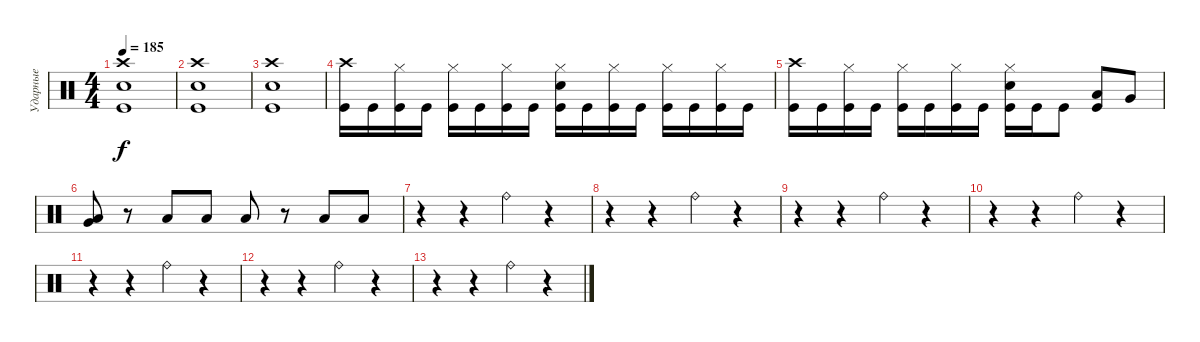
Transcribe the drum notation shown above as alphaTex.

\track ("Ударные" "Ударные") {instrument percussion}
\staff {score}
\articulation defaults
\ts (4 4)
\tempo 185
\clef neutral
\ks c
("Crash high (hit)" "Electric Snare (hit)" "Kick (hit)").1{dy f} |
("Crash high (hit)" "Electric Snare (hit)" "Kick (hit)").1 |
("Crash high (hit)" "Electric Snare (hit)" "Kick (hit)").1 |
("Crash high (hit)" "Kick (hit)").16 "Kick (hit)".16 ("Hi-Hat (closed)" "Kick (hit)").16 "Kick (hit)".16 ("Hi-Hat (closed)" "Kick (hit)").16 "Kick (hit)".16 ("Hi-Hat (closed)" "Kick (hit)").16 "Kick (hit)".16 ("Hi-Hat (closed)" "Electric Snare (hit)" "Kick (hit)").16 "Kick (hit)".16 ("Hi-Hat (closed)" "Kick (hit)").16 "Kick (hit)".16 ("Hi-Hat (closed)" "Kick (hit)").16 "Kick (hit)".16 ("Hi-Hat (closed)" "Kick (hit)").16 "Kick (hit)".16 |
("Crash high (hit)" "Kick (hit)").16 "Kick (hit)".16 ("Hi-Hat (closed)" "Kick (hit)").16 "Kick (hit)".16 ("Hi-Hat (closed)" "Kick (hit)").16 "Kick (hit)".16 ("Hi-Hat (closed)" "Kick (hit)").16 "Kick (hit)".16 ("Hi-Hat (closed)" "Electric Snare (hit)" "Kick (hit)").16 "Kick (hit)".16 "Kick (hit)".8 ("Low Tom (hit)" "Kick (hit)").8 "Very Low Tom (hit)".8 |
("Very Low Tom (hit)" "Low Tom (hit)").8 r.8 "Low Tom (hit)".8 "Low Tom (hit)".8 "Low Tom (hit)".8 r.8 "Low Tom (hit)".8 "Low Tom (hit)".8 |
r.4 r.4 "Ride (bell)".4 r.4 |
r.4 r.4 "Ride (bell)".4 r.4 |
r.4 r.4 "Ride (bell)".4 r.4 |
r.4 r.4 "Ride (bell)".4 r.4 |
r.4 r.4 "Ride (bell)".4 r.4 |
r.4 r.4 "Ride (bell)".4 r.4 |
r.4 r.4 "Ride (bell)".4 r.4
